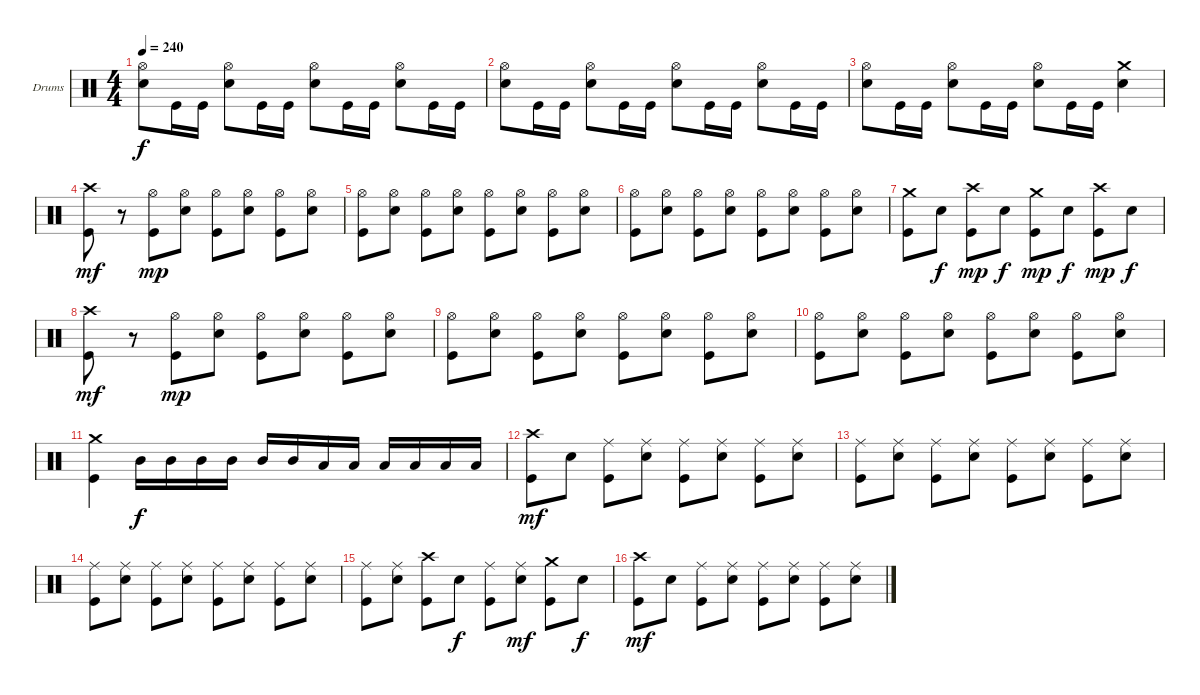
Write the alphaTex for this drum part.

\bracketExtendMode groupsimilarinstruments
\firstSystemTrackNameOrientation horizontal
\otherSystemsTrackNameOrientation horizontal
\track ("Drumkit" "Drums") {instrument percussion}
\staff {score}
\articulation defaults
\ts (4 4)
\tempo 240
\clef neutral
\ks c
("Hi-Hat (open)" "Snare (hit) 2").8{dy f} "Kick (hit)".16 "Kick (hit)".16 ("Hi-Hat (open)" "Snare (hit) 2").8 "Kick (hit)".16 "Kick (hit)".16 ("Hi-Hat (open)" "Snare (hit) 2").8 "Kick (hit)".16 "Kick (hit)".16 ("Hi-Hat (open)" "Snare (hit) 2").8 "Kick (hit)".16 "Kick (hit)".16 |
("Hi-Hat (open)" "Snare (hit) 2").8 "Kick (hit)".16 "Kick (hit)".16 ("Hi-Hat (open)" "Snare (hit) 2").8 "Kick (hit)".16 "Kick (hit)".16 ("Hi-Hat (open)" "Snare (hit) 2").8 "Kick (hit)".16 "Kick (hit)".16 ("Hi-Hat (open)" "Snare (hit) 2").8 "Kick (hit)".16 "Kick (hit)".16 |
("Hi-Hat (open)" "Snare (hit) 2").8 "Kick (hit)".16 "Kick (hit)".16 ("Hi-Hat (open)" "Snare (hit) 2").8 "Kick (hit)".16 "Kick (hit)".16 ("Hi-Hat (open)" "Snare (hit) 2").8 "Kick (hit)".16 "Kick (hit)".16 ("Crash medium (hit)" "Snare (hit) 2").4 |
("Crash high (hit)" "Kick (hit)").8{dy mf} r.8 ("Hi-Hat (open)" "Kick (hit)").8{dy mp} ("Hi-Hat (open)" "Snare (hit) 2").8 ("Hi-Hat (open)" "Kick (hit)").8 ("Hi-Hat (open)" "Snare (hit) 2").8 ("Hi-Hat (open)" "Kick (hit)").8 ("Hi-Hat (open)" "Snare (hit) 2").8 |
("Hi-Hat (open)" "Kick (hit)").8 ("Hi-Hat (open)" "Snare (hit) 2").8 ("Hi-Hat (open)" "Kick (hit)").8 ("Hi-Hat (open)" "Snare (hit) 2").8 ("Hi-Hat (open)" "Kick (hit)").8 ("Hi-Hat (open)" "Snare (hit) 2").8 ("Hi-Hat (open)" "Kick (hit)").8 ("Hi-Hat (open)" "Snare (hit) 2").8 |
("Hi-Hat (open)" "Kick (hit)").8 ("Hi-Hat (open)" "Snare (hit) 2").8 ("Hi-Hat (open)" "Kick (hit)").8 ("Hi-Hat (open)" "Snare (hit) 2").8 ("Hi-Hat (open)" "Kick (hit)").8 ("Hi-Hat (open)" "Snare (hit) 2").8 ("Hi-Hat (open)" "Kick (hit)").8 ("Hi-Hat (open)" "Snare (hit) 2").8 |
("Crash medium (hit)" "Kick (hit)").8 "Snare (hit) 2".8{dy f} ("Crash high (hit)" "Kick (hit)").8{dy mp} "Snare (hit) 2".8{dy f} ("Crash medium (hit)" "Kick (hit)").8{dy mp} "Snare (hit) 2".8{dy f} ("Crash high (hit)" "Kick (hit)").8{dy mp} "Snare (hit) 2".8{dy f} |
("Crash high (hit)" "Kick (hit)").8{dy mf} r.8 ("Hi-Hat (open)" "Kick (hit)").8{dy mp} ("Hi-Hat (open)" "Snare (hit) 2").8 ("Hi-Hat (open)" "Kick (hit)").8 ("Hi-Hat (open)" "Snare (hit) 2").8 ("Hi-Hat (open)" "Kick (hit)").8 ("Hi-Hat (open)" "Snare (hit) 2").8 |
("Hi-Hat (open)" "Kick (hit)").8 ("Hi-Hat (open)" "Snare (hit) 2").8 ("Hi-Hat (open)" "Kick (hit)").8 ("Hi-Hat (open)" "Snare (hit) 2").8 ("Hi-Hat (open)" "Kick (hit)").8 ("Hi-Hat (open)" "Snare (hit) 2").8 ("Hi-Hat (open)" "Kick (hit)").8 ("Hi-Hat (open)" "Snare (hit) 2").8 |
("Hi-Hat (open)" "Kick (hit)").8 ("Hi-Hat (open)" "Snare (hit) 2").8 ("Hi-Hat (open)" "Kick (hit)").8 ("Hi-Hat (open)" "Snare (hit) 2").8 ("Hi-Hat (open)" "Kick (hit)").8 ("Hi-Hat (open)" "Snare (hit) 2").8 ("Hi-Hat (open)" "Kick (hit)").8 ("Hi-Hat (open)" "Snare (hit) 2").8 |
("Crash medium (hit)" "Kick (hit)").4 "Mid Tom (hit)".16{dy f} "Mid Tom (hit)".16 "Mid Tom (hit)".16 "Mid Tom (hit)".16 "Mid Tom (hit)".16 "Mid Tom (hit)".16 "Low Tom (hit)".16 "Low Tom (hit)".16 "Low Tom (hit)".16 "Low Tom (hit)".16 "Low Tom (hit)".16 "Low Tom (hit)".16 |
("Crash high (hit)" "Kick (hit)").8{dy mf} "Snare (hit) 2".8 ("Ride (middle)" "Kick (hit)").8 ("Ride (middle)" "Snare (hit) 2").8 ("Ride (middle)" "Kick (hit)").8 ("Ride (middle)" "Snare (hit) 2").8 ("Ride (middle)" "Kick (hit)").8 ("Ride (middle)" "Snare (hit) 2").8 |
("Ride (middle)" "Kick (hit)").8 ("Ride (middle)" "Snare (hit) 2").8 ("Ride (middle)" "Kick (hit)").8 ("Ride (middle)" "Snare (hit) 2").8 ("Ride (middle)" "Kick (hit)").8 ("Ride (middle)" "Snare (hit) 2").8 ("Ride (middle)" "Kick (hit)").8 ("Ride (middle)" "Snare (hit) 2").8 |
("Ride (middle)" "Kick (hit)").8 ("Ride (middle)" "Snare (hit) 2").8 ("Ride (middle)" "Kick (hit)").8 ("Ride (middle)" "Snare (hit) 2").8 ("Ride (middle)" "Kick (hit)").8 ("Ride (middle)" "Snare (hit) 2").8 ("Ride (middle)" "Kick (hit)").8 ("Ride (middle)" "Snare (hit) 2").8 |
("Ride (middle)" "Kick (hit)").8 ("Ride (middle)" "Snare (hit) 2").8 ("Crash high (hit)" "Kick (hit)").8 "Snare (hit) 2".8{dy f} ("Ride (middle)" "Kick (hit)").8 ("Ride (middle)" "Snare (hit) 2").8{dy mf} ("Crash medium (hit)" "Kick (hit)").8 "Snare (hit) 2".8{dy f} |
("Crash high (hit)" "Kick (hit)").8{dy mf} "Snare (hit) 2".8 ("Ride (middle)" "Kick (hit)").8 ("Ride (middle)" "Snare (hit) 2").8 ("Ride (middle)" "Kick (hit)").8 ("Ride (middle)" "Snare (hit) 2").8 ("Ride (middle)" "Kick (hit)").8 ("Ride (middle)" "Snare (hit) 2").8
